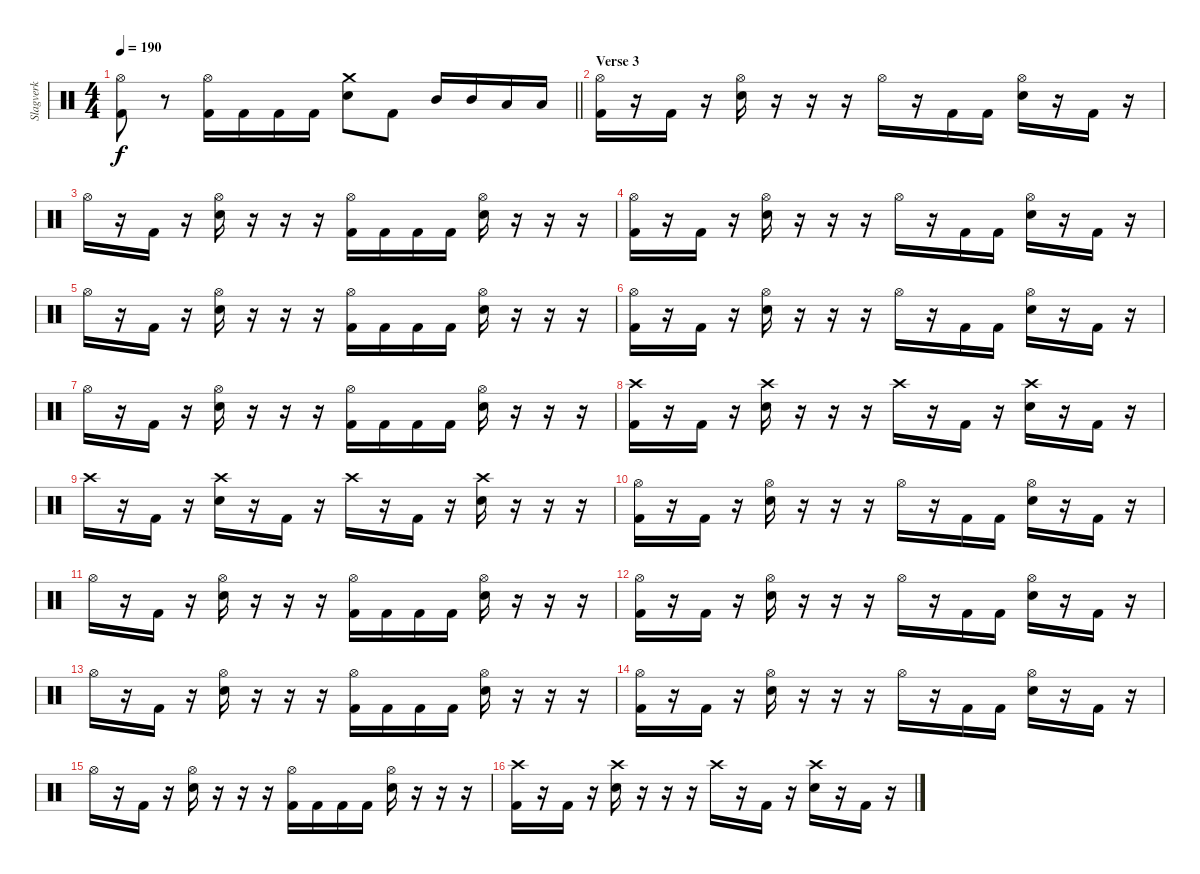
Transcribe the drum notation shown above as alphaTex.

\track ("Slagverk" "Slagverk") {instrument percussion}
\staff {score}
\articulation defaults
\ts (4 4)
\tempo 190
\clef neutral
\barLineRight lightlight
\ks c
("Hi-Hat (open)" "Kick (hit) 2").8{dy f} r.8 ("Hi-Hat (open)" "Kick (hit) 2").16 "Kick (hit) 2".16 "Kick (hit) 2".16 "Kick (hit) 2".16 ("Crash medium (hit)" "Electric Snare (hit)").8 "Kick (hit) 2".8 "Mid Tom (hit)".16 "Mid Tom (hit)".16 "Low Tom (hit)".16 "Low Tom (hit)".16 |
\section ("" "Verse 3")
("Hi-Hat (open)" "Kick (hit) 2").16 r.16 "Kick (hit) 2".16 r.16 ("Hi-Hat (open)" "Electric Snare (hit)").16 r.16 r.16 r.16 "Hi-Hat (open)".16 r.16 "Kick (hit) 2".16 "Kick (hit) 2".16 ("Hi-Hat (open)" "Electric Snare (hit)").16 r.16 "Kick (hit) 2".16 r.16 |
"Hi-Hat (open)".16 r.16 "Kick (hit) 2".16 r.16 ("Hi-Hat (open)" "Electric Snare (hit)").16 r.16 r.16 r.16 ("Hi-Hat (open)" "Kick (hit) 2").16 "Kick (hit) 2".16 "Kick (hit) 2".16 "Kick (hit) 2".16 ("Hi-Hat (open)" "Electric Snare (hit)").16 r.16 r.16 r.16 |
("Hi-Hat (open)" "Kick (hit) 2").16 r.16 "Kick (hit) 2".16 r.16 ("Hi-Hat (open)" "Electric Snare (hit)").16 r.16 r.16 r.16 "Hi-Hat (open)".16 r.16 "Kick (hit) 2".16 "Kick (hit) 2".16 ("Hi-Hat (open)" "Electric Snare (hit)").16 r.16 "Kick (hit) 2".16 r.16 |
"Hi-Hat (open)".16 r.16 "Kick (hit) 2".16 r.16 ("Hi-Hat (open)" "Electric Snare (hit)").16 r.16 r.16 r.16 ("Hi-Hat (open)" "Kick (hit) 2").16 "Kick (hit) 2".16 "Kick (hit) 2".16 "Kick (hit) 2".16 ("Hi-Hat (open)" "Electric Snare (hit)").16 r.16 r.16 r.16 |
("Hi-Hat (open)" "Kick (hit) 2").16 r.16 "Kick (hit) 2".16 r.16 ("Hi-Hat (open)" "Electric Snare (hit)").16 r.16 r.16 r.16 "Hi-Hat (open)".16 r.16 "Kick (hit) 2".16 "Kick (hit) 2".16 ("Hi-Hat (open)" "Electric Snare (hit)").16 r.16 "Kick (hit) 2".16 r.16 |
"Hi-Hat (open)".16 r.16 "Kick (hit) 2".16 r.16 ("Hi-Hat (open)" "Electric Snare (hit)").16 r.16 r.16 r.16 ("Hi-Hat (open)" "Kick (hit) 2").16 "Kick (hit) 2".16 "Kick (hit) 2".16 "Kick (hit) 2".16 ("Hi-Hat (open)" "Electric Snare (hit)").16 r.16 r.16 r.16 |
("Crash high (hit)" "Kick (hit) 2").16 r.16 "Kick (hit) 2".16 r.16 ("Crash high (hit)" "Electric Snare (hit)").16 r.16 r.16 r.16 "Crash high (hit)".16 r.16 "Kick (hit) 2".16 r.16 ("Crash high (hit)" "Electric Snare (hit)").16 r.16 "Kick (hit) 2".16 r.16 |
"Crash high (hit)".16 r.16 "Kick (hit) 2".16 r.16 ("Crash high (hit)" "Electric Snare (hit)").16 r.16 "Kick (hit) 2".16 r.16 "Crash high (hit)".16 r.16 "Kick (hit) 2".16 r.16 ("Crash high (hit)" "Electric Snare (hit)").16 r.16 r.16 r.16 |
("Hi-Hat (open)" "Kick (hit) 2").16 r.16 "Kick (hit) 2".16 r.16 ("Hi-Hat (open)" "Electric Snare (hit)").16 r.16 r.16 r.16 "Hi-Hat (open)".16 r.16 "Kick (hit) 2".16 "Kick (hit) 2".16 ("Hi-Hat (open)" "Electric Snare (hit)").16 r.16 "Kick (hit) 2".16 r.16 |
"Hi-Hat (open)".16 r.16 "Kick (hit) 2".16 r.16 ("Hi-Hat (open)" "Electric Snare (hit)").16 r.16 r.16 r.16 ("Hi-Hat (open)" "Kick (hit) 2").16 "Kick (hit) 2".16 "Kick (hit) 2".16 "Kick (hit) 2".16 ("Hi-Hat (open)" "Electric Snare (hit)").16 r.16 r.16 r.16 |
("Hi-Hat (open)" "Kick (hit) 2").16 r.16 "Kick (hit) 2".16 r.16 ("Hi-Hat (open)" "Electric Snare (hit)").16 r.16 r.16 r.16 "Hi-Hat (open)".16 r.16 "Kick (hit) 2".16 "Kick (hit) 2".16 ("Hi-Hat (open)" "Electric Snare (hit)").16 r.16 "Kick (hit) 2".16 r.16 |
"Hi-Hat (open)".16 r.16 "Kick (hit) 2".16 r.16 ("Hi-Hat (open)" "Electric Snare (hit)").16 r.16 r.16 r.16 ("Hi-Hat (open)" "Kick (hit) 2").16 "Kick (hit) 2".16 "Kick (hit) 2".16 "Kick (hit) 2".16 ("Hi-Hat (open)" "Electric Snare (hit)").16 r.16 r.16 r.16 |
("Hi-Hat (open)" "Kick (hit) 2").16 r.16 "Kick (hit) 2".16 r.16 ("Hi-Hat (open)" "Electric Snare (hit)").16 r.16 r.16 r.16 "Hi-Hat (open)".16 r.16 "Kick (hit) 2".16 "Kick (hit) 2".16 ("Hi-Hat (open)" "Electric Snare (hit)").16 r.16 "Kick (hit) 2".16 r.16 |
"Hi-Hat (open)".16 r.16 "Kick (hit) 2".16 r.16 ("Hi-Hat (open)" "Electric Snare (hit)").16 r.16 r.16 r.16 ("Hi-Hat (open)" "Kick (hit) 2").16 "Kick (hit) 2".16 "Kick (hit) 2".16 "Kick (hit) 2".16 ("Hi-Hat (open)" "Electric Snare (hit)").16 r.16 r.16 r.16 |
("Crash high (hit)" "Kick (hit) 2").16 r.16 "Kick (hit) 2".16 r.16 ("Crash high (hit)" "Electric Snare (hit)").16 r.16 r.16 r.16 "Crash high (hit)".16 r.16 "Kick (hit) 2".16 r.16 ("Crash high (hit)" "Electric Snare (hit)").16 r.16 "Kick (hit) 2".16 r.16
